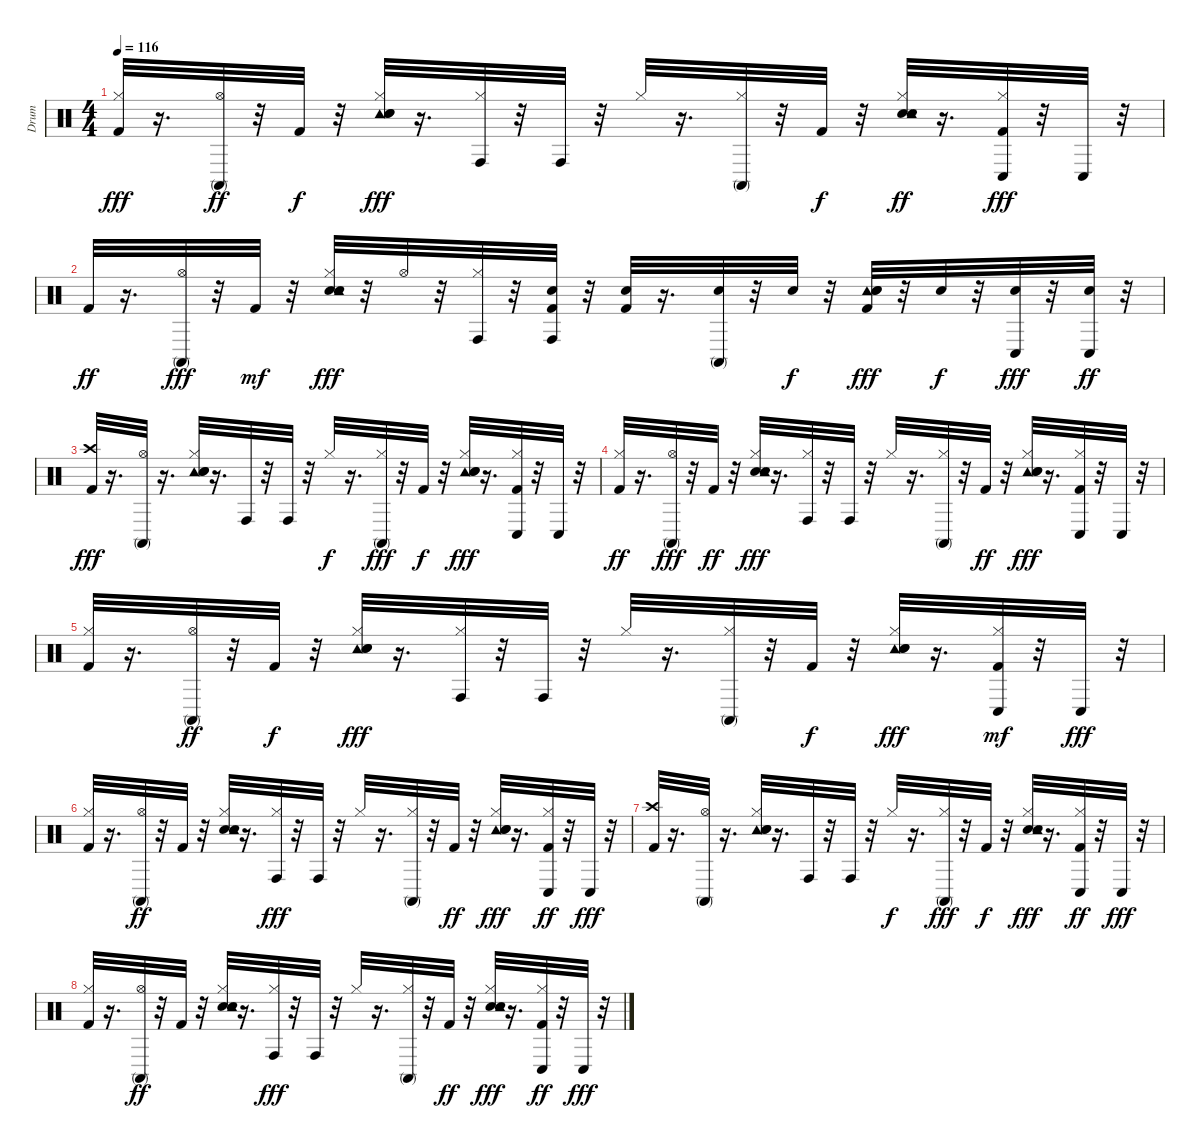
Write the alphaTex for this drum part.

\track ("Drum" "Drum") {instrument percussion}
\staff {score}
\articulation defaults
\ts (4 4)
\tempo 116
\clef neutral
\ks c
("Kick (hit) 2" "Hi-Hat (closed)").32{dy fff} r.16{d} ("Conga high (mute)" "Hi-Hat (open)").32{dy ff} r.32 "Kick (hit) 2".32{dy f} r.32 ("Hi-Hat (closed)" "Tambourine (hit)" "Electric Snare (hit)" "Hand Clap (hit)").32{dy fff} r.16{d} ("Hi-Hat (closed)" "Conga high (hit)").32 r.32 "Conga high (hit)".32 r.32 "Hi-Hat (closed)".32 r.16{d} ("Hi-Hat (closed)" "Conga high (mute)").32 r.32 "Kick (hit) 2".32{dy f} r.32 ("Hi-Hat (closed)" "Hand Clap (hit)" "Electric Snare (hit)" "Tambourine (hit)").32{dy ff} r.16{d} ("Hi-Hat (closed)" "Conga low (hit)" "Kick (hit) 2").32{dy fff} r.32 "Conga low (hit)".32 r.32 |
"Kick (hit) 2".32{dy ff} r.16{d} ("Hi-Hat (open)" "Conga high (mute)").32{dy fff} r.32 "Kick (hit) 2".32{dy mf} r.32 ("Electric Snare (hit)" "Tambourine (hit)" "Hand Clap (hit)" "Hi-Hat (closed)").32{dy fff} r.32 "Hi-Hat (open)".32 r.32 ("Hi-Hat (closed)" "Conga high (hit)").32 r.32 ("Electric Snare (hit)" "Kick (hit) 2" "Conga high (hit)").32 r.32 ("Kick (hit) 2" "Electric Snare (hit)").32 r.16{d} ("Conga high (mute)" "Electric Snare (hit)").32 r.32 "Electric Snare (hit)".32{dy f} r.32 ("Kick (hit) 2" "Tambourine (hit)" "Electric Snare (hit)" "Hand Clap (hit)").32{dy fff} r.32 "Electric Snare (hit)".32{dy f} r.32 ("Electric Snare (hit)" "Conga low (hit)").32{dy fff} r.32 ("Conga low (hit)" "Electric Snare (hit)").32{dy ff} r.32 |
("Kick (hit) 2" "Crash high (hit)").32{dy fff} r.16{d} ("Hi-Hat (open)" "Conga high (mute)").32 r.16{d} ("Tambourine (hit)" "Electric Snare (hit)" "Hand Clap (hit)" "Hi-Hat (closed)").32 r.16{d} "Conga high (hit)".32 r.32 "Conga high (hit)".32 r.32 "Hi-Hat (closed)".32{dy f} r.16{d} ("Hi-Hat (closed)" "Conga high (mute)").32{dy fff} r.32 "Kick (hit) 2".32{dy f} r.32 ("Tambourine (hit)" "Electric Snare (hit)" "Hi-Hat (closed)" "Hand Clap (hit)").32{dy fff} r.16{d} ("Hi-Hat (closed)" "Kick (hit) 2" "Conga low (hit)").32 r.32 "Conga low (hit)".32 r.32 |
("Kick (hit) 2" "Hi-Hat (closed)").32{dy ff} r.16{d} ("Hi-Hat (open)" "Conga high (mute)").32{dy fff} r.32 "Kick (hit) 2".32{dy ff} r.32 ("Hand Clap (hit)" "Tambourine (hit)" "Hi-Hat (closed)" "Electric Snare (hit)").32{dy fff} r.16{d} ("Hi-Hat (closed)" "Conga high (hit)").32 r.32 "Conga high (hit)".32 r.32 "Hi-Hat (closed)".32 r.16{d} ("Hi-Hat (closed)" "Conga high (mute)").32 r.32 "Kick (hit) 2".32{dy ff} r.32 ("Tambourine (hit)" "Hi-Hat (closed)" "Electric Snare (hit)" "Hand Clap (hit)").32{dy fff} r.16{d} ("Kick (hit) 2" "Hi-Hat (closed)" "Conga low (hit)").32 r.32 "Conga low (hit)".32 r.32 |
("Kick (hit) 2" "Hi-Hat (closed)").32 r.16{d} ("Conga high (mute)" "Hi-Hat (open)").32{dy ff} r.32 "Kick (hit) 2".32{dy f} r.32 ("Tambourine (hit)" "Electric Snare (hit)" "Hi-Hat (closed)" "Hand Clap (hit)").32{dy fff} r.16{d} ("Hi-Hat (closed)" "Conga high (hit)").32 r.32 "Conga high (hit)".32 r.32 "Hi-Hat (closed)".32 r.16{d} ("Conga high (mute)" "Hi-Hat (closed)").32 r.32 "Kick (hit) 2".32{dy f} r.32 ("Tambourine (hit)" "Hi-Hat (closed)" "Hand Clap (hit)" "Electric Snare (hit)").32{dy fff} r.16{d} ("Conga low (hit)" "Hi-Hat (closed)" "Kick (hit) 2").32{dy mf} r.32 "Conga low (hit)".32{dy fff} r.32 |
("Kick (hit) 2" "Hi-Hat (closed)").32 r.16{d} ("Conga high (mute)" "Hi-Hat (open)").32{dy ff} r.32 "Kick (hit) 2".32 r.32 ("Electric Snare (hit)" "Hand Clap (hit)" "Hi-Hat (closed)" "Tambourine (hit)").32 r.16{d} ("Conga high (hit)" "Hi-Hat (closed)").32{dy fff} r.32 "Conga high (hit)".32 r.32 "Hi-Hat (closed)".32 r.16{d} ("Hi-Hat (closed)" "Conga high (mute)").32 r.32 "Kick (hit) 2".32{dy ff} r.32 ("Tambourine (hit)" "Hand Clap (hit)" "Electric Snare (hit)" "Hi-Hat (closed)").32{dy fff} r.16{d} ("Conga low (hit)" "Kick (hit) 2" "Hi-Hat (closed)").32{dy ff} r.32 "Conga low (hit)".32{dy fff} r.32 |
("Kick (hit) 2" "Crash high (hit)").32 r.16{d} ("Hi-Hat (open)" "Conga high (mute)").32 r.16{d} ("Tambourine (hit)" "Hi-Hat (closed)" "Electric Snare (hit)" "Hand Clap (hit)").32 r.16{d} "Conga high (hit)".32 r.32 "Conga high (hit)".32 r.32 "Hi-Hat (closed)".32{dy f} r.16{d} ("Hi-Hat (closed)" "Conga high (mute)").32{dy fff} r.32 "Kick (hit) 2".32{dy f} r.32 ("Hand Clap (hit)" "Hi-Hat (closed)" "Tambourine (hit)" "Electric Snare (hit)").32{dy fff} r.16{d} ("Hi-Hat (closed)" "Conga low (hit)" "Kick (hit) 2").32{dy ff} r.32 "Conga low (hit)".32{dy fff} r.32 |
("Hi-Hat (closed)" "Kick (hit) 2").32 r.16{d} ("Conga high (mute)" "Hi-Hat (open)").32{dy ff} r.32 "Kick (hit) 2".32 r.32 ("Hand Clap (hit)" "Tambourine (hit)" "Electric Snare (hit)" "Hi-Hat (closed)").32 r.16{d} ("Hi-Hat (closed)" "Conga high (hit)").32{dy fff} r.32 "Conga high (hit)".32 r.32 "Hi-Hat (closed)".32 r.16{d} ("Conga high (mute)" "Hi-Hat (closed)").32 r.32 "Kick (hit) 2".32{dy ff} r.32 ("Hand Clap (hit)" "Tambourine (hit)" "Hi-Hat (closed)" "Electric Snare (hit)").32{dy fff} r.16{d} ("Conga low (hit)" "Hi-Hat (closed)" "Kick (hit) 2").32{dy ff} r.32 "Conga low (hit)".32{dy fff} r.32
